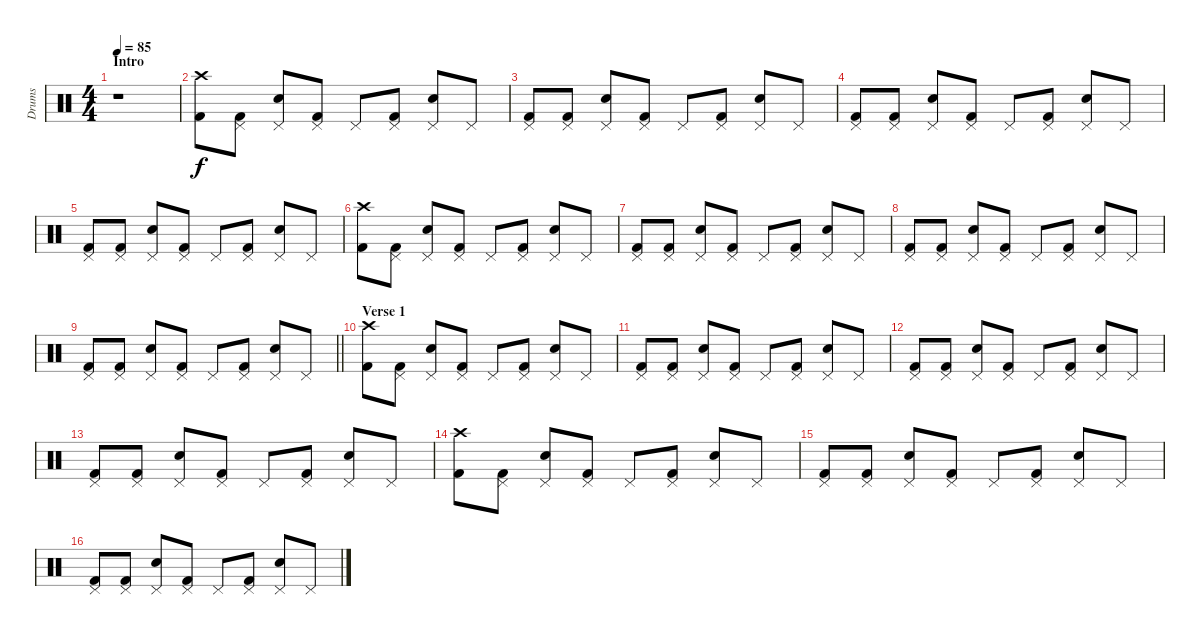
\track ("Drums" "Drums") {instrument percussion}
\staff {score}
\articulation defaults
\ts (4 4)
\section ("" "Intro")
\tempo 85
\clef neutral
\ks c
r.1{dy f} |
("Crash high (hit)" "Kick (hit) 2").8 ("Pedal Hi-Hat (hit)" "Kick (hit) 2").8 ("Pedal Hi-Hat (hit)" "Electric Snare (hit)").8 ("Pedal Hi-Hat (hit)" "Kick (hit) 2").8 "Pedal Hi-Hat (hit)".8 ("Pedal Hi-Hat (hit)" "Kick (hit) 2").8 ("Pedal Hi-Hat (hit)" "Electric Snare (hit)").8 "Pedal Hi-Hat (hit)".8 |
("Pedal Hi-Hat (hit)" "Kick (hit) 2").8 ("Pedal Hi-Hat (hit)" "Kick (hit) 2").8 ("Pedal Hi-Hat (hit)" "Electric Snare (hit)").8 ("Pedal Hi-Hat (hit)" "Kick (hit) 2").8 "Pedal Hi-Hat (hit)".8 ("Pedal Hi-Hat (hit)" "Kick (hit) 2").8 ("Pedal Hi-Hat (hit)" "Electric Snare (hit)").8 "Pedal Hi-Hat (hit)".8 |
("Pedal Hi-Hat (hit)" "Kick (hit) 2").8 ("Pedal Hi-Hat (hit)" "Kick (hit) 2").8 ("Pedal Hi-Hat (hit)" "Electric Snare (hit)").8 ("Pedal Hi-Hat (hit)" "Kick (hit) 2").8 "Pedal Hi-Hat (hit)".8 ("Pedal Hi-Hat (hit)" "Kick (hit) 2").8 ("Pedal Hi-Hat (hit)" "Electric Snare (hit)").8 "Pedal Hi-Hat (hit)".8 |
("Pedal Hi-Hat (hit)" "Kick (hit) 2").8 ("Pedal Hi-Hat (hit)" "Kick (hit) 2").8 ("Pedal Hi-Hat (hit)" "Electric Snare (hit)").8 ("Pedal Hi-Hat (hit)" "Kick (hit) 2").8 "Pedal Hi-Hat (hit)".8 ("Pedal Hi-Hat (hit)" "Kick (hit) 2").8 ("Pedal Hi-Hat (hit)" "Electric Snare (hit)").8 "Pedal Hi-Hat (hit)".8 |
("Crash high (hit)" "Kick (hit) 2").8 ("Pedal Hi-Hat (hit)" "Kick (hit) 2").8 ("Pedal Hi-Hat (hit)" "Electric Snare (hit)").8 ("Pedal Hi-Hat (hit)" "Kick (hit) 2").8 "Pedal Hi-Hat (hit)".8 ("Pedal Hi-Hat (hit)" "Kick (hit) 2").8 ("Pedal Hi-Hat (hit)" "Electric Snare (hit)").8 "Pedal Hi-Hat (hit)".8 |
("Pedal Hi-Hat (hit)" "Kick (hit) 2").8 ("Pedal Hi-Hat (hit)" "Kick (hit) 2").8 ("Pedal Hi-Hat (hit)" "Electric Snare (hit)").8 ("Pedal Hi-Hat (hit)" "Kick (hit) 2").8 "Pedal Hi-Hat (hit)".8 ("Pedal Hi-Hat (hit)" "Kick (hit) 2").8 ("Pedal Hi-Hat (hit)" "Electric Snare (hit)").8 "Pedal Hi-Hat (hit)".8 |
("Pedal Hi-Hat (hit)" "Kick (hit) 2").8 ("Pedal Hi-Hat (hit)" "Kick (hit) 2").8 ("Pedal Hi-Hat (hit)" "Electric Snare (hit)").8 ("Pedal Hi-Hat (hit)" "Kick (hit) 2").8 "Pedal Hi-Hat (hit)".8 ("Pedal Hi-Hat (hit)" "Kick (hit) 2").8 ("Pedal Hi-Hat (hit)" "Electric Snare (hit)").8 "Pedal Hi-Hat (hit)".8 |
\barLineRight lightlight
("Pedal Hi-Hat (hit)" "Kick (hit) 2").8 ("Pedal Hi-Hat (hit)" "Kick (hit) 2").8 ("Pedal Hi-Hat (hit)" "Electric Snare (hit)").8 ("Pedal Hi-Hat (hit)" "Kick (hit) 2").8 "Pedal Hi-Hat (hit)".8 ("Pedal Hi-Hat (hit)" "Kick (hit) 2").8 ("Pedal Hi-Hat (hit)" "Electric Snare (hit)").8 "Pedal Hi-Hat (hit)".8 |
\section ("" "Verse 1")
("Crash high (hit)" "Kick (hit) 2").8 ("Pedal Hi-Hat (hit)" "Kick (hit) 2").8 ("Pedal Hi-Hat (hit)" "Electric Snare (hit)").8 ("Pedal Hi-Hat (hit)" "Kick (hit) 2").8 "Pedal Hi-Hat (hit)".8 ("Pedal Hi-Hat (hit)" "Kick (hit) 2").8 ("Pedal Hi-Hat (hit)" "Electric Snare (hit)").8 "Pedal Hi-Hat (hit)".8 |
("Pedal Hi-Hat (hit)" "Kick (hit) 2").8 ("Pedal Hi-Hat (hit)" "Kick (hit) 2").8 ("Pedal Hi-Hat (hit)" "Electric Snare (hit)").8 ("Pedal Hi-Hat (hit)" "Kick (hit) 2").8 "Pedal Hi-Hat (hit)".8 ("Pedal Hi-Hat (hit)" "Kick (hit) 2").8 ("Pedal Hi-Hat (hit)" "Electric Snare (hit)").8 "Pedal Hi-Hat (hit)".8 |
("Pedal Hi-Hat (hit)" "Kick (hit) 2").8 ("Pedal Hi-Hat (hit)" "Kick (hit) 2").8 ("Pedal Hi-Hat (hit)" "Electric Snare (hit)").8 ("Pedal Hi-Hat (hit)" "Kick (hit) 2").8 "Pedal Hi-Hat (hit)".8 ("Pedal Hi-Hat (hit)" "Kick (hit) 2").8 ("Pedal Hi-Hat (hit)" "Electric Snare (hit)").8 "Pedal Hi-Hat (hit)".8 |
("Pedal Hi-Hat (hit)" "Kick (hit) 2").8 ("Pedal Hi-Hat (hit)" "Kick (hit) 2").8 ("Pedal Hi-Hat (hit)" "Electric Snare (hit)").8 ("Pedal Hi-Hat (hit)" "Kick (hit) 2").8 "Pedal Hi-Hat (hit)".8 ("Pedal Hi-Hat (hit)" "Kick (hit) 2").8 ("Pedal Hi-Hat (hit)" "Electric Snare (hit)").8 "Pedal Hi-Hat (hit)".8 |
("Crash high (hit)" "Kick (hit) 2").8 ("Pedal Hi-Hat (hit)" "Kick (hit) 2").8 ("Pedal Hi-Hat (hit)" "Electric Snare (hit)").8 ("Pedal Hi-Hat (hit)" "Kick (hit) 2").8 "Pedal Hi-Hat (hit)".8 ("Pedal Hi-Hat (hit)" "Kick (hit) 2").8 ("Pedal Hi-Hat (hit)" "Electric Snare (hit)").8 "Pedal Hi-Hat (hit)".8 |
("Pedal Hi-Hat (hit)" "Kick (hit) 2").8 ("Pedal Hi-Hat (hit)" "Kick (hit) 2").8 ("Pedal Hi-Hat (hit)" "Electric Snare (hit)").8 ("Pedal Hi-Hat (hit)" "Kick (hit) 2").8 "Pedal Hi-Hat (hit)".8 ("Pedal Hi-Hat (hit)" "Kick (hit) 2").8 ("Pedal Hi-Hat (hit)" "Electric Snare (hit)").8 "Pedal Hi-Hat (hit)".8 |
("Pedal Hi-Hat (hit)" "Kick (hit) 2").8 ("Pedal Hi-Hat (hit)" "Kick (hit) 2").8 ("Pedal Hi-Hat (hit)" "Electric Snare (hit)").8 ("Pedal Hi-Hat (hit)" "Kick (hit) 2").8 "Pedal Hi-Hat (hit)".8 ("Pedal Hi-Hat (hit)" "Kick (hit) 2").8 ("Pedal Hi-Hat (hit)" "Electric Snare (hit)").8 "Pedal Hi-Hat (hit)".8
